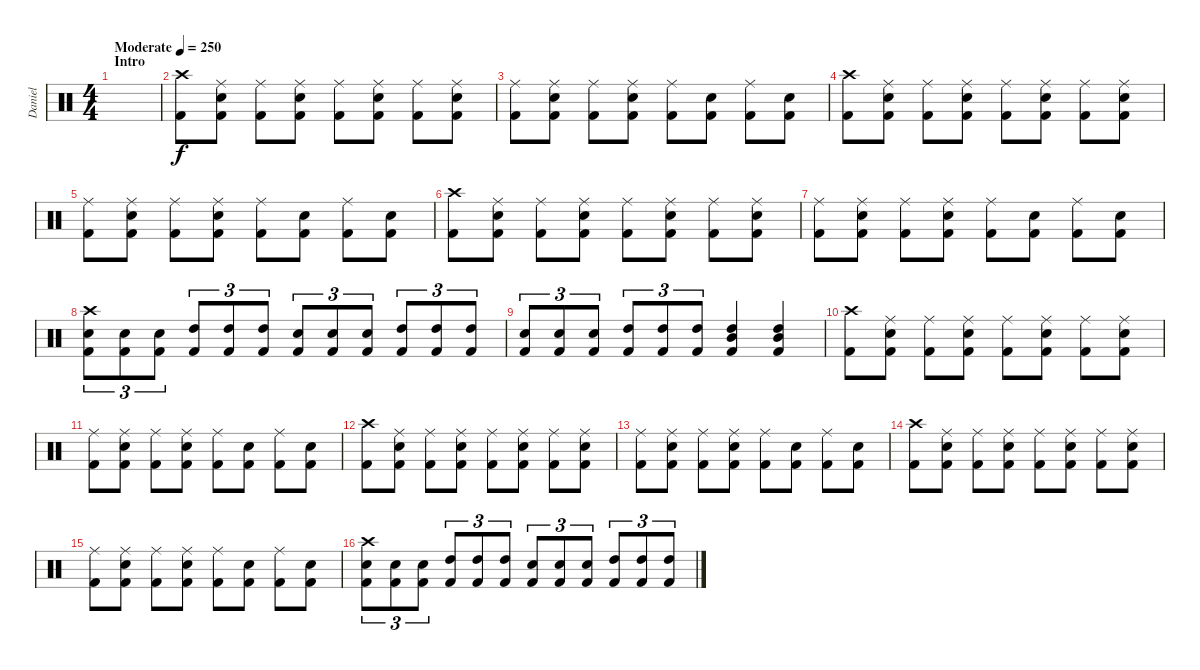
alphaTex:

\track ("Daniel" "Daniel") {instrument percussion}
\staff {score}
\articulation defaults
\ts (4 4)
\section ("" "Intro")
\tempo (250 "Moderate")
\clef neutral
\ks c
|
("Crash high (hit)" "Kick (hit) 2").8 ("Ride (middle)" "Snare (hit) 2" "Kick (hit) 2").8 ("Ride (middle)" "Kick (hit) 2").8 ("Ride (middle)" "Snare (hit) 2" "Kick (hit) 2").8 ("Ride (middle)" "Kick (hit) 2").8 ("Ride (middle)" "Snare (hit) 2" "Kick (hit) 2").8 ("Ride (middle)" "Kick (hit) 2").8 ("Ride (middle)" "Snare (hit) 2" "Kick (hit) 2").8 |
("Ride (middle)" "Kick (hit) 2").8 ("Ride (middle)" "Snare (hit) 2" "Kick (hit) 2").8 ("Ride (middle)" "Kick (hit) 2").8 ("Ride (middle)" "Snare (hit) 2" "Kick (hit) 2").8 ("Ride (middle)" "Kick (hit) 2").8 ("Snare (hit) 2" "Kick (hit) 2").8 ("Ride (middle)" "Kick (hit) 2").8 ("Snare (hit) 2" "Kick (hit) 2").8 |
("Crash high (hit)" "Kick (hit) 2").8 ("Ride (middle)" "Snare (hit) 2" "Kick (hit) 2").8 ("Ride (middle)" "Kick (hit) 2").8 ("Ride (middle)" "Snare (hit) 2" "Kick (hit) 2").8 ("Ride (middle)" "Kick (hit) 2").8 ("Ride (middle)" "Snare (hit) 2" "Kick (hit) 2").8 ("Ride (middle)" "Kick (hit) 2").8 ("Ride (middle)" "Snare (hit) 2" "Kick (hit) 2").8 |
("Ride (middle)" "Kick (hit) 2").8 ("Ride (middle)" "Snare (hit) 2" "Kick (hit) 2").8 ("Ride (middle)" "Kick (hit) 2").8 ("Ride (middle)" "Snare (hit) 2" "Kick (hit) 2").8 ("Ride (middle)" "Kick (hit) 2").8 ("Snare (hit) 2" "Kick (hit) 2").8 ("Ride (middle)" "Kick (hit) 2").8 ("Snare (hit) 2" "Kick (hit) 2").8 |
("Crash high (hit)" "Kick (hit) 2").8 ("Ride (middle)" "Snare (hit) 2" "Kick (hit) 2").8 ("Ride (middle)" "Kick (hit) 2").8 ("Ride (middle)" "Snare (hit) 2" "Kick (hit) 2").8 ("Ride (middle)" "Kick (hit) 2").8 ("Ride (middle)" "Snare (hit) 2" "Kick (hit) 2").8 ("Ride (middle)" "Kick (hit) 2").8 ("Ride (middle)" "Snare (hit) 2" "Kick (hit) 2").8 |
("Ride (middle)" "Kick (hit) 2").8 ("Ride (middle)" "Snare (hit) 2" "Kick (hit) 2").8 ("Ride (middle)" "Kick (hit) 2").8 ("Ride (middle)" "Snare (hit) 2" "Kick (hit) 2").8 ("Ride (middle)" "Kick (hit) 2").8 ("Snare (hit) 2" "Kick (hit) 2").8 ("Ride (middle)" "Kick (hit) 2").8 ("Snare (hit) 2" "Kick (hit) 2").8 |
("Crash high (hit)" "Snare (hit) 2" "Kick (hit) 2").8{tu (3 2)} ("Snare (hit) 2" "Kick (hit) 2").8{tu (3 2)} ("Snare (hit) 2" "Kick (hit) 2").8{tu (3 2)} ("High Tom (hit)" "Kick (hit) 2").8{tu (3 2)} ("High Tom (hit)" "Kick (hit) 2").8{tu (3 2)} ("High Tom (hit)" "Kick (hit) 2").8{tu (3 2)} ("Snare (hit) 2" "Kick (hit) 2").8{tu (3 2)} ("Snare (hit) 2" "Kick (hit) 2").8{tu (3 2)} ("Snare (hit) 2" "Kick (hit) 2").8{tu (3 2)} ("High Tom (hit)" "Kick (hit) 2").8{tu (3 2)} ("High Tom (hit)" "Kick (hit) 2").8{tu (3 2)} ("High Tom (hit)" "Kick (hit) 2").8{tu (3 2)} |
("Snare (hit) 2" "Kick (hit) 2").8{tu (3 2)} ("Snare (hit) 2" "Kick (hit) 2").8{tu (3 2)} ("Snare (hit) 2" "Kick (hit) 2").8{tu (3 2)} ("High Tom (hit)" "Kick (hit) 2").8{tu (3 2)} ("High Tom (hit)" "Kick (hit) 2").8{tu (3 2)} ("High Tom (hit)" "Kick (hit) 2").8{tu (3 2)} ("High Tom (hit)" "Mid Tom (hit)" "Kick (hit) 2").4 ("High Tom (hit)" "Mid Tom (hit)" "Kick (hit) 2").4 |
("Crash high (hit)" "Kick (hit) 2").8 ("Ride (middle)" "Snare (hit) 2" "Kick (hit) 2").8 ("Ride (middle)" "Kick (hit) 2").8 ("Ride (middle)" "Snare (hit) 2" "Kick (hit) 2").8 ("Ride (middle)" "Kick (hit) 2").8 ("Ride (middle)" "Snare (hit) 2" "Kick (hit) 2").8 ("Ride (middle)" "Kick (hit) 2").8 ("Ride (middle)" "Snare (hit) 2" "Kick (hit) 2").8 |
("Ride (middle)" "Kick (hit) 2").8 ("Ride (middle)" "Snare (hit) 2" "Kick (hit) 2").8 ("Ride (middle)" "Kick (hit) 2").8 ("Ride (middle)" "Snare (hit) 2" "Kick (hit) 2").8 ("Ride (middle)" "Kick (hit) 2").8 ("Snare (hit) 2" "Kick (hit) 2").8 ("Ride (middle)" "Kick (hit) 2").8 ("Snare (hit) 2" "Kick (hit) 2").8 |
("Crash high (hit)" "Kick (hit) 2").8 ("Ride (middle)" "Snare (hit) 2" "Kick (hit) 2").8 ("Ride (middle)" "Kick (hit) 2").8 ("Ride (middle)" "Snare (hit) 2" "Kick (hit) 2").8 ("Ride (middle)" "Kick (hit) 2").8 ("Ride (middle)" "Snare (hit) 2" "Kick (hit) 2").8 ("Ride (middle)" "Kick (hit) 2").8 ("Ride (middle)" "Snare (hit) 2" "Kick (hit) 2").8 |
("Ride (middle)" "Kick (hit) 2").8 ("Ride (middle)" "Snare (hit) 2" "Kick (hit) 2").8 ("Ride (middle)" "Kick (hit) 2").8 ("Ride (middle)" "Snare (hit) 2" "Kick (hit) 2").8 ("Ride (middle)" "Kick (hit) 2").8 ("Snare (hit) 2" "Kick (hit) 2").8 ("Ride (middle)" "Kick (hit) 2").8 ("Snare (hit) 2" "Kick (hit) 2").8 |
("Crash high (hit)" "Kick (hit) 2").8 ("Ride (middle)" "Snare (hit) 2" "Kick (hit) 2").8 ("Ride (middle)" "Kick (hit) 2").8 ("Ride (middle)" "Snare (hit) 2" "Kick (hit) 2").8 ("Ride (middle)" "Kick (hit) 2").8 ("Ride (middle)" "Snare (hit) 2" "Kick (hit) 2").8 ("Ride (middle)" "Kick (hit) 2").8 ("Ride (middle)" "Snare (hit) 2" "Kick (hit) 2").8 |
("Ride (middle)" "Kick (hit) 2").8 ("Ride (middle)" "Snare (hit) 2" "Kick (hit) 2").8 ("Ride (middle)" "Kick (hit) 2").8 ("Ride (middle)" "Snare (hit) 2" "Kick (hit) 2").8 ("Ride (middle)" "Kick (hit) 2").8 ("Snare (hit) 2" "Kick (hit) 2").8 ("Ride (middle)" "Kick (hit) 2").8 ("Snare (hit) 2" "Kick (hit) 2").8 |
("Crash high (hit)" "Snare (hit) 2" "Kick (hit) 2").8{tu (3 2)} ("Snare (hit) 2" "Kick (hit) 2").8{tu (3 2)} ("Snare (hit) 2" "Kick (hit) 2").8{tu (3 2)} ("High Tom (hit)" "Kick (hit) 2").8{tu (3 2)} ("High Tom (hit)" "Kick (hit) 2").8{tu (3 2)} ("High Tom (hit)" "Kick (hit) 2").8{tu (3 2)} ("Snare (hit) 2" "Kick (hit) 2").8{tu (3 2)} ("Snare (hit) 2" "Kick (hit) 2").8{tu (3 2)} ("Snare (hit) 2" "Kick (hit) 2").8{tu (3 2)} ("High Tom (hit)" "Kick (hit) 2").8{tu (3 2)} ("High Tom (hit)" "Kick (hit) 2").8{tu (3 2)} ("High Tom (hit)" "Kick (hit) 2").8{tu (3 2)}
